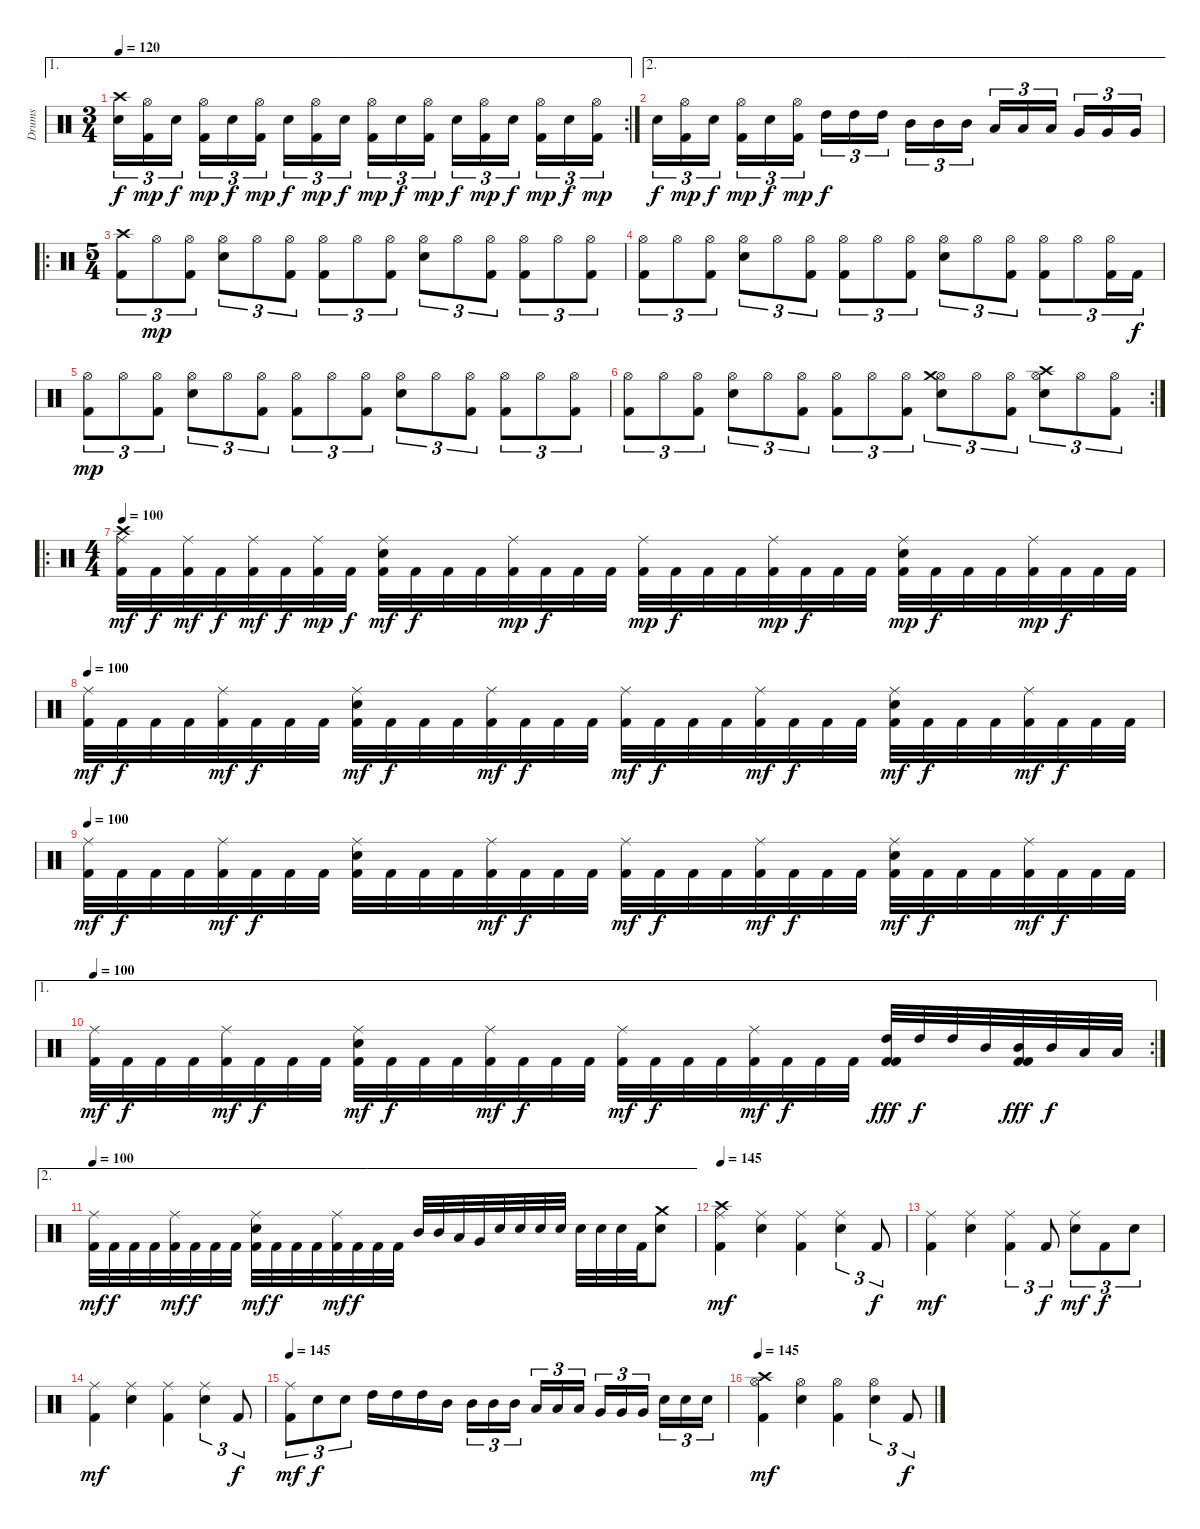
\track ("Drums" "Drums") {instrument percussion}
\staff {score}
\articulation defaults
\ae 1
\rc 2
\ts (3 4)
\tempo 120
\clef neutral
\ks c
("Crash high (hit)" "Electric Snare (hit)").16{tu (3 2) dy f} ("Hi-Hat (open)" "Kick (hit) 2").16{tu (3 2) dy mp} "Electric Snare (hit)".16{tu (3 2) dy f} ("Hi-Hat (open)" "Kick (hit) 2").16{tu (3 2) dy mp} "Electric Snare (hit)".16{tu (3 2) dy f} ("Hi-Hat (open)" "Kick (hit) 2").16{tu (3 2) dy mp} "Electric Snare (hit)".16{tu (3 2) dy f} ("Hi-Hat (open)" "Kick (hit) 2").16{tu (3 2) dy mp} "Electric Snare (hit)".16{tu (3 2) dy f} ("Hi-Hat (open)" "Kick (hit) 2").16{tu (3 2) dy mp} "Electric Snare (hit)".16{tu (3 2) dy f} ("Hi-Hat (open)" "Kick (hit) 2").16{tu (3 2) dy mp} "Electric Snare (hit)".16{tu (3 2) dy f} ("Hi-Hat (open)" "Kick (hit) 2").16{tu (3 2) dy mp} "Electric Snare (hit)".16{tu (3 2) dy f} ("Hi-Hat (open)" "Kick (hit) 2").16{tu (3 2) dy mp} "Electric Snare (hit)".16{tu (3 2) dy f} ("Hi-Hat (open)" "Kick (hit) 2").16{tu (3 2) dy mp} |
\ae 2 "Electric Snare (hit)".16{tu (3 2) dy f}
("Hi-Hat (open)" "Kick (hit) 2").16{tu (3 2) dy mp} "Electric Snare (hit)".16{tu (3 2) dy f} ("Hi-Hat (open)" "Kick (hit) 2").16{tu (3 2) dy mp} "Electric Snare (hit)".16{tu (3 2) dy f} ("Hi-Hat (open)" "Kick (hit) 2").16{tu (3 2) dy mp} "High Tom (hit)".16{tu (3 2) dy f} "High Tom (hit)".16{tu (3 2)} "High Tom (hit)".16{tu (3 2)} "Mid Tom (hit)".16{tu (3 2)} "Mid Tom (hit)".16{tu (3 2)} "Mid Tom (hit)".16{tu (3 2)} "Low Tom (hit)".16{tu (3 2)} "Low Tom (hit)".16{tu (3 2)} "Low Tom (hit)".16{tu (3 2)} "Very Low Tom (hit)".16{tu (3 2)} "Very Low Tom (hit)".16{tu (3 2)} "Very Low Tom (hit)".16{tu (3 2)} |
\ro
\ts (5 4)
("Crash high (hit)" "Kick (hit) 2").8{tu (3 2)} "Hi-Hat (open)".8{tu (3 2) dy mp} ("Hi-Hat (open)" "Kick (hit) 2").8{tu (3 2)} ("Hi-Hat (open)" "Snare (hit) 2").8{tu (3 2)} "Hi-Hat (open)".8{tu (3 2)} ("Hi-Hat (open)" "Kick (hit) 2").8{tu (3 2)} ("Hi-Hat (open)" "Kick (hit) 2").8{tu (3 2)} "Hi-Hat (open)".8{tu (3 2)} ("Hi-Hat (open)" "Kick (hit) 2").8{tu (3 2)} ("Hi-Hat (open)" "Snare (hit) 2").8{tu (3 2)} "Hi-Hat (open)".8{tu (3 2)} ("Hi-Hat (open)" "Kick (hit) 2").8{tu (3 2)} ("Hi-Hat (open)" "Kick (hit) 2").8{tu (3 2)} "Hi-Hat (open)".8{tu (3 2)} ("Hi-Hat (open)" "Kick (hit) 2").8{tu (3 2)} |
("Hi-Hat (open)" "Kick (hit) 2").8{tu (3 2)} "Hi-Hat (open)".8{tu (3 2)} ("Hi-Hat (open)" "Kick (hit) 2").8{tu (3 2)} ("Hi-Hat (open)" "Snare (hit) 2").8{tu (3 2)} "Hi-Hat (open)".8{tu (3 2)} ("Hi-Hat (open)" "Kick (hit) 2").8{tu (3 2)} ("Hi-Hat (open)" "Kick (hit) 2").8{tu (3 2)} "Hi-Hat (open)".8{tu (3 2)} ("Hi-Hat (open)" "Kick (hit) 2").8{tu (3 2)} ("Hi-Hat (open)" "Snare (hit) 2").8{tu (3 2)} "Hi-Hat (open)".8{tu (3 2)} ("Hi-Hat (open)" "Kick (hit) 2").8{tu (3 2)} ("Hi-Hat (open)" "Kick (hit) 2").8{tu (3 2)} "Hi-Hat (open)".8{tu (3 2)} ("Hi-Hat (open)" "Kick (hit) 2").16{tu (3 2)} "Kick (hit) 2".16{tu (3 2) dy f} |
("Hi-Hat (open)" "Kick (hit) 2").8{tu (3 2) dy mp} "Hi-Hat (open)".8{tu (3 2)} ("Hi-Hat (open)" "Kick (hit) 2").8{tu (3 2)} ("Hi-Hat (open)" "Snare (hit) 2").8{tu (3 2)} "Hi-Hat (open)".8{tu (3 2)} ("Hi-Hat (open)" "Kick (hit) 2").8{tu (3 2)} ("Hi-Hat (open)" "Kick (hit) 2").8{tu (3 2)} "Hi-Hat (open)".8{tu (3 2)} ("Hi-Hat (open)" "Kick (hit) 2").8{tu (3 2)} ("Hi-Hat (open)" "Snare (hit) 2").8{tu (3 2)} "Hi-Hat (open)".8{tu (3 2)} ("Hi-Hat (open)" "Kick (hit) 2").8{tu (3 2)} ("Hi-Hat (open)" "Kick (hit) 2").8{tu (3 2)} "Hi-Hat (open)".8{tu (3 2)} ("Hi-Hat (open)" "Kick (hit) 2").8{tu (3 2)} |
\rc 2
("Hi-Hat (open)" "Kick (hit) 2").8{tu (3 2)} "Hi-Hat (open)".8{tu (3 2)} ("Hi-Hat (open)" "Kick (hit) 2").8{tu (3 2)} ("Hi-Hat (open)" "Snare (hit) 2").8{tu (3 2)} "Hi-Hat (open)".8{tu (3 2)} ("Hi-Hat (open)" "Kick (hit) 2").8{tu (3 2)} ("Hi-Hat (open)" "Kick (hit) 2").8{tu (3 2)} "Hi-Hat (open)".8{tu (3 2)} ("Hi-Hat (open)" "Kick (hit) 2").8{tu (3 2)} ("Hi-Hat (open)" "Crash medium (hit)" "Snare (hit) 2").8{tu (3 2)} "Hi-Hat (open)".8{tu (3 2)} ("Hi-Hat (open)" "Kick (hit) 2").8{tu (3 2)} ("Hi-Hat (open)" "Crash high (hit)" "Snare (hit) 2").8{tu (3 2)} "Hi-Hat (open)".8{tu (3 2)} ("Hi-Hat (open)" "Kick (hit) 2").8{tu (3 2)} |
\ro
\ts (4 4)
\tempo 100
("Crash high (hit)" "Ride (middle)" "Kick (hit) 2").32{dy mf} "Kick (hit) 2".32{dy f} ("Ride (middle)" "Kick (hit) 2").32{dy mf} "Kick (hit) 2".32{dy f} ("Ride (middle)" "Kick (hit) 2").32{dy mf} "Kick (hit) 2".32{dy f} ("Ride (middle)" "Kick (hit) 2").32{dy mp} "Kick (hit) 2".32{dy f} ("Ride (middle)" "Snare (hit) 2" "Kick (hit) 2").32{dy mf} "Kick (hit) 2".32{dy f} "Kick (hit) 2".32 "Kick (hit) 2".32 ("Ride (middle)" "Kick (hit) 2").32{dy mp} "Kick (hit) 2".32{dy f} "Kick (hit) 2".32 "Kick (hit) 2".32 ("Ride (middle)" "Kick (hit) 2").32{dy mp} "Kick (hit) 2".32{dy f} "Kick (hit) 2".32 "Kick (hit) 2".32 ("Ride (middle)" "Kick (hit) 2").32{dy mp} "Kick (hit) 2".32{dy f} "Kick (hit) 2".32 "Kick (hit) 2".32 ("Ride (middle)" "Snare (hit) 2" "Kick (hit) 2").32{dy mp} "Kick (hit) 2".32{dy f} "Kick (hit) 2".32 "Kick (hit) 2".32 ("Ride (middle)" "Kick (hit) 2").32{dy mp} "Kick (hit) 2".32{dy f} "Kick (hit) 2".32 "Kick (hit) 2".32 |
\tempo 100
("Ride (middle)" "Kick (hit) 2").32{dy mf} "Kick (hit) 2".32{dy f} "Kick (hit) 2".32 "Kick (hit) 2".32 ("Ride (middle)" "Kick (hit) 2").32{dy mf} "Kick (hit) 2".32{dy f} "Kick (hit) 2".32 "Kick (hit) 2".32 ("Ride (middle)" "Snare (hit) 2" "Kick (hit) 2").32{dy mf} "Kick (hit) 2".32{dy f} "Kick (hit) 2".32 "Kick (hit) 2".32 ("Ride (middle)" "Kick (hit) 2").32{dy mf} "Kick (hit) 2".32{dy f} "Kick (hit) 2".32 "Kick (hit) 2".32 ("Ride (middle)" "Kick (hit) 2").32{dy mf} "Kick (hit) 2".32{dy f} "Kick (hit) 2".32 "Kick (hit) 2".32 ("Ride (middle)" "Kick (hit) 2").32{dy mf} "Kick (hit) 2".32{dy f} "Kick (hit) 2".32 "Kick (hit) 2".32 ("Ride (middle)" "Snare (hit) 2" "Kick (hit) 2").32{dy mf} "Kick (hit) 2".32{dy f} "Kick (hit) 2".32 "Kick (hit) 2".32 ("Ride (middle)" "Kick (hit) 2").32{dy mf} "Kick (hit) 2".32{dy f} "Kick (hit) 2".32 "Kick (hit) 2".32 |
\tempo 100
("Ride (middle)" "Kick (hit) 2").32{dy mf} "Kick (hit) 2".32{dy f} "Kick (hit) 2".32 "Kick (hit) 2".32 ("Ride (middle)" "Kick (hit) 2").32{dy mf} "Kick (hit) 2".32{dy f} "Kick (hit) 2".32 "Kick (hit) 2".32 ("Ride (middle)" "Snare (hit) 2" "Kick (hit) 2").32 "Kick (hit) 2".32 "Kick (hit) 2".32 "Kick (hit) 2".32 ("Ride (middle)" "Kick (hit) 2").32{dy mf} "Kick (hit) 2".32{dy f} "Kick (hit) 2".32 "Kick (hit) 2".32 ("Ride (middle)" "Kick (hit) 2").32{dy mf} "Kick (hit) 2".32{dy f} "Kick (hit) 2".32 "Kick (hit) 2".32 ("Ride (middle)" "Kick (hit) 2").32{dy mf} "Kick (hit) 2".32{dy f} "Kick (hit) 2".32 "Kick (hit) 2".32 ("Ride (middle)" "Snare (hit) 2" "Kick (hit) 2").32{dy mf} "Kick (hit) 2".32{dy f} "Kick (hit) 2".32 "Kick (hit) 2".32 ("Ride (middle)" "Kick (hit) 2").32{dy mf} "Kick (hit) 2".32{dy f} "Kick (hit) 2".32 "Kick (hit) 2".32 |
\ae 1
\rc 2
\tempo 100
("Ride (middle)" "Kick (hit) 2").32{dy mf} "Kick (hit) 2".32{dy f} "Kick (hit) 2".32 "Kick (hit) 2".32 ("Ride (middle)" "Kick (hit) 2").32{dy mf} "Kick (hit) 2".32{dy f} "Kick (hit) 2".32 "Kick (hit) 2".32 ("Ride (middle)" "Snare (hit) 2" "Kick (hit) 2").32{dy mf} "Kick (hit) 2".32{dy f} "Kick (hit) 2".32 "Kick (hit) 2".32 ("Ride (middle)" "Kick (hit) 2").32{dy mf} "Kick (hit) 2".32{dy f} "Kick (hit) 2".32 "Kick (hit) 2".32 ("Ride (middle)" "Kick (hit) 2").32{dy mf} "Kick (hit) 2".32{dy f} "Kick (hit) 2".32 "Kick (hit) 2".32 ("Ride (middle)" "Kick (hit) 2").32{dy mf} "Kick (hit) 2".32{dy f} "Kick (hit) 2".32 "Kick (hit) 2".32 ("High Tom (hit)" "Kick (hit) 2" "Kick (hit) 2").32{dy fff} "High Tom (hit)".32{dy f} "High Tom (hit)".32 "Mid Tom (hit)".32 ("Mid Tom (hit)" "Kick (hit) 2" "Kick (hit) 2").32{dy fff} "Mid Tom (hit)".32{dy f} "Low Tom (hit)".32 "Low Tom (hit)".32 |
\ae 2
\tempo 100
("Ride (middle)" "Kick (hit) 2").32{dy mf} "Kick (hit) 2".32{dy f} "Kick (hit) 2".32 "Kick (hit) 2".32 ("Ride (middle)" "Kick (hit) 2").32{dy mf} "Kick (hit) 2".32{dy f} "Kick (hit) 2".32 "Kick (hit) 2".32 ("Ride (middle)" "Snare (hit) 2" "Kick (hit) 2").32{dy mf} "Kick (hit) 2".32{dy f} "Kick (hit) 2".32 "Kick (hit) 2".32 ("Ride (middle)" "Kick (hit) 2").32{dy mf} "Kick (hit) 2".32{dy f} "Kick (hit) 2".32 "Kick (hit) 2".32 "Mid Tom (hit)".32 "Mid Tom (hit)".32 "Low Tom (hit)".32 "Very Low Tom (hit)".32 "Electric Snare (hit)".32 "Electric Snare (hit)".32 "Electric Snare (hit)".32 "Electric Snare (hit)".32 "Electric Snare (hit)".32 "Electric Snare (hit)".32 "Electric Snare (hit)".32 "Kick (hit) 2".32 ("Crash medium (hit)" "Electric Snare (hit)").8 |
\tempo 145
("Crash high (hit)" "Ride (middle)" "Kick (hit) 2").4{dy mf} ("Ride (middle)" "Electric Snare (hit)").4 ("Ride (middle)" "Kick (hit) 2").4 ("Ride (middle)" "Electric Snare (hit)").4{tu (3 2)} "Kick (hit) 2".8{tu (3 2) dy f} |
("Ride (middle)" "Kick (hit) 2").4{dy mf} ("Ride (middle)" "Electric Snare (hit)").4 ("Ride (middle)" "Kick (hit) 2").4{tu (3 2)} "Kick (hit) 2".8{tu (3 2) dy f} ("Ride (middle)" "Electric Snare (hit)").8{tu (3 2) dy mf} "Kick (hit) 2".8{tu (3 2) dy f} "Electric Snare (hit)".8{tu (3 2)} |
("Ride (middle)" "Kick (hit) 2").4{dy mf} ("Ride (middle)" "Electric Snare (hit)").4 ("Ride (middle)" "Kick (hit) 2").4 ("Ride (middle)" "Electric Snare (hit)").4{tu (3 2)} "Kick (hit) 2".8{tu (3 2) dy f} |
\tempo 145
("Ride (middle)" "Kick (hit) 2").8{tu (3 2) dy mf} "Electric Snare (hit)".8{tu (3 2) dy f} "Electric Snare (hit)".8{tu (3 2)} "High Tom (hit)".16 "High Tom (hit)".16 "High Tom (hit)".16 "Mid Tom (hit)".16 "Mid Tom (hit)".16{tu (3 2)} "Mid Tom (hit)".16{tu (3 2)} "Mid Tom (hit)".16{tu (3 2)} "Low Tom (hit)".16{tu (3 2)} "Low Tom (hit)".16{tu (3 2)} "Low Tom (hit)".16{tu (3 2)} "Very Low Tom (hit)".16{tu (3 2)} "Very Low Tom (hit)".16{tu (3 2)} "Very Low Tom (hit)".16{tu (3 2)} "Electric Snare (hit)".16{tu (3 2)} "Electric Snare (hit)".16{tu (3 2)} "Electric Snare (hit)".16{tu (3 2)} |
\tempo 145
("Crash high (hit)" "Hi-Hat (open)" "Kick (hit) 2").4{dy mf} ("Hi-Hat (open)" "Electric Snare (hit)").4 ("Hi-Hat (open)" "Kick (hit) 2").4 ("Hi-Hat (open)" "Electric Snare (hit)").4{tu (3 2)} "Kick (hit) 2".8{tu (3 2) dy f}
